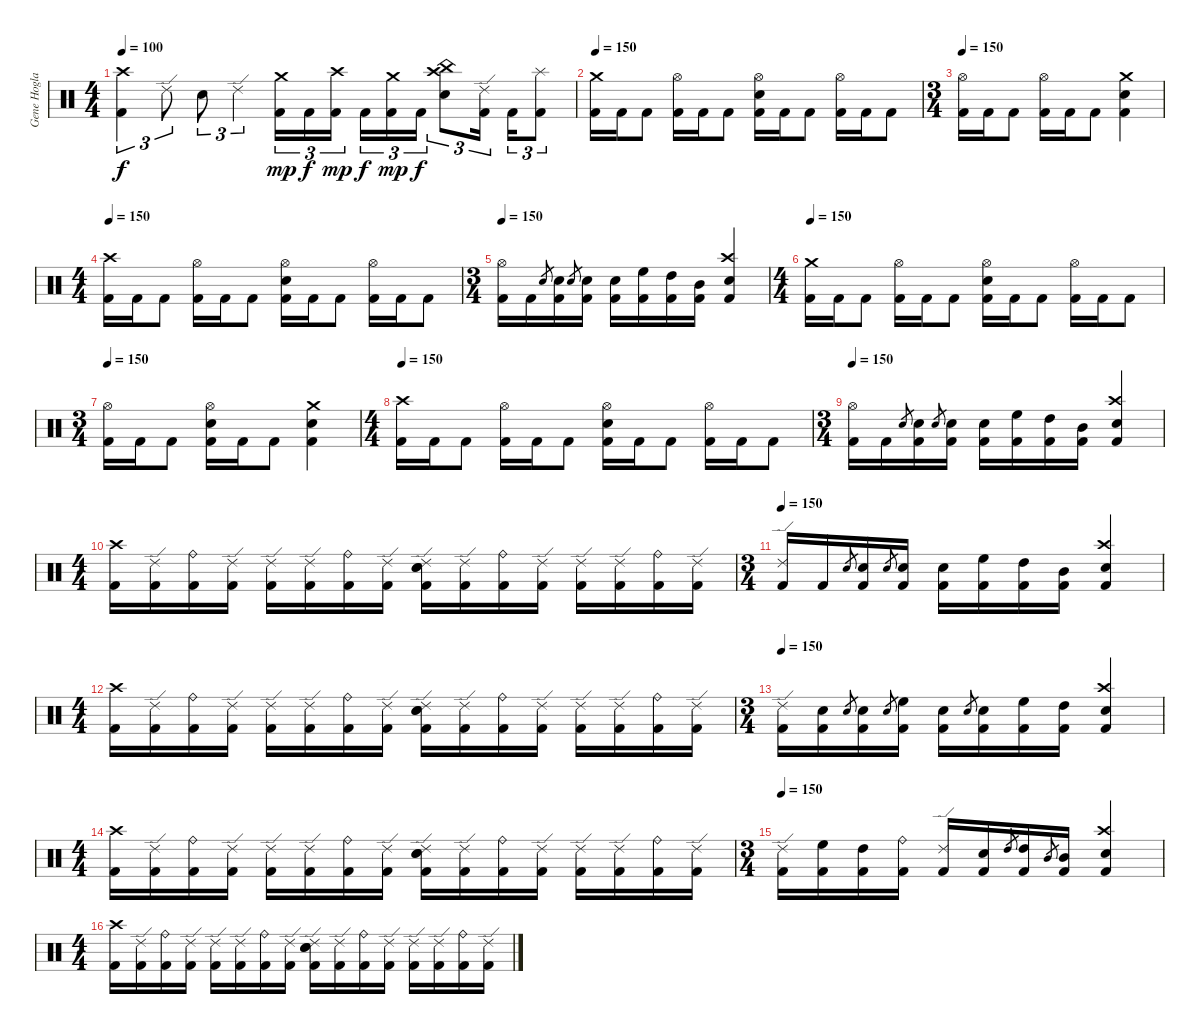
\track ("Gene Hoglan" "Gene Hogla") {instrument percussion}
\staff {score}
\articulation defaults
\ts (4 4)
\tempo 100
\clef neutral
\ks c
("Kick (hit) 2" "Crash high (hit)").4{tu (3 2) dy f} "Ride (edge) 2".8{tu (3 2)} "Electric Snare (hit)".8{tu (3 2)} "Ride (edge) 2".4{tu (3 2)} ("Kick (hit) 2" "Crash medium (hit)").16{tu (3 2) dy mp} "Kick (hit) 2".16{tu (3 2) dy f} ("Kick (hit) 2" "Crash high (hit)").16{tu (3 2) dy mp} "Kick (hit) 2".16{tu (3 2) dy f} ("Kick (hit) 2" "Crash medium (hit)").16{tu (3 2) dy mp} "Kick (hit) 2".16{tu (3 2) dy f} ("Electric Snare (hit)" "Crash high (hit)" "China (hit)").8{tu (3 2)} ("Kick (hit) 2" "Ride (edge) 2").16{tu (3 2)} "Kick (hit) 2".16{tu (3 2)} ("Kick (hit) 2" "Splash (hit)").8{tu (3 2)} |
\tempo 150
("Kick (hit) 2" "Crash medium (hit)").16 "Kick (hit) 2".16 "Kick (hit) 2".8 ("Kick (hit) 2" "Hi-Hat (open)").16 "Kick (hit) 2".16 "Kick (hit) 2".8 ("Kick (hit) 2" "Electric Snare (hit)" "Hi-Hat (open)").16 "Kick (hit) 2".16 "Kick (hit) 2".8 ("Kick (hit) 2" "Hi-Hat (open)").16 "Kick (hit) 2".16 "Kick (hit) 2".8 |
\ts (3 4)
\tempo 150
("Kick (hit) 2" "Hi-Hat (open)").16 "Kick (hit) 2".16 "Kick (hit) 2".8 ("Kick (hit) 2" "Hi-Hat (open)").16 "Kick (hit) 2".16 "Kick (hit) 2".8 ("Kick (hit) 2" "Electric Snare (hit)" "Crash medium (hit)").4 |
\ts (4 4)
\tempo 150
("Kick (hit) 2" "Crash high (hit)").16 "Kick (hit) 2".16 "Kick (hit) 2".8 ("Kick (hit) 2" "Hi-Hat (open)").16 "Kick (hit) 2".16 "Kick (hit) 2".8 ("Kick (hit) 2" "Electric Snare (hit)" "Hi-Hat (open)").16 "Kick (hit) 2".16 "Kick (hit) 2".8 ("Kick (hit) 2" "Hi-Hat (open)").16 "Kick (hit) 2".16 "Kick (hit) 2".8 |
\ts (3 4)
\tempo 150
("Kick (hit) 2" "Hi-Hat (open)").16 "Kick (hit) 2".16 "Electric Snare (hit)".8{gr} ("Kick (hit) 2" "Electric Snare (hit)").16 "Electric Snare (hit)".8{gr} ("Kick (hit) 2" "Electric Snare (hit)").16 ("Kick (hit) 2" "Electric Snare (hit)").16 ("Kick (hit) 2" "High Floor Tom (hit)").16 ("Kick (hit) 2" "High Tom (hit)").16 ("Kick (hit) 2" "Mid Tom (hit)").16 ("Kick (hit) 2" "Electric Snare (hit)" "Crash high (hit)").4 |
\ts (4 4)
\tempo 150
("Kick (hit) 2" "Crash medium (hit)").16 "Kick (hit) 2".16 "Kick (hit) 2".8 ("Kick (hit) 2" "Hi-Hat (open)").16 "Kick (hit) 2".16 "Kick (hit) 2".8 ("Kick (hit) 2" "Electric Snare (hit)" "Hi-Hat (open)").16 "Kick (hit) 2".16 "Kick (hit) 2".8 ("Kick (hit) 2" "Hi-Hat (open)").16 "Kick (hit) 2".16 "Kick (hit) 2".8 |
\ts (3 4)
\tempo 150
("Kick (hit) 2" "Hi-Hat (open)").16 "Kick (hit) 2".16 "Kick (hit) 2".8 ("Kick (hit) 2" "Electric Snare (hit)" "Hi-Hat (open)").16 "Kick (hit) 2".16 "Kick (hit) 2".8 ("Kick (hit) 2" "Electric Snare (hit)" "Crash medium (hit)").4 |
\ts (4 4)
\tempo 150
("Kick (hit) 2" "Crash high (hit)").16 "Kick (hit) 2".16 "Kick (hit) 2".8 ("Kick (hit) 2" "Hi-Hat (open)").16 "Kick (hit) 2".16 "Kick (hit) 2".8 ("Kick (hit) 2" "Electric Snare (hit)" "Hi-Hat (open)").16 "Kick (hit) 2".16 "Kick (hit) 2".8 ("Kick (hit) 2" "Hi-Hat (open)").16 "Kick (hit) 2".16 "Kick (hit) 2".8 |
\ts (3 4)
\tempo 150
("Kick (hit) 2" "Hi-Hat (open)").16 "Kick (hit) 2".16 "Electric Snare (hit)".8{gr} ("Kick (hit) 2" "Electric Snare (hit)").16 "Electric Snare (hit)".8{gr} ("Kick (hit) 2" "Electric Snare (hit)").16 ("Kick (hit) 2" "Electric Snare (hit)").16 ("Kick (hit) 2" "High Floor Tom (hit)").16 ("Kick (hit) 2" "High Tom (hit)").16 ("Kick (hit) 2" "Mid Tom (hit)").16 ("Kick (hit) 2" "Electric Snare (hit)" "Crash high (hit)").4 |
\ts (4 4)
("Kick (hit) 2" "Crash high (hit)").16 ("Kick (hit) 2" "Ride (edge) 2").16 ("Kick (hit) 2" "Ride (bell)").16 ("Kick (hit) 2" "Ride (edge) 2").16 ("Kick (hit) 2" "Ride (edge) 2").16 ("Kick (hit) 2" "Ride (edge) 2").16 ("Kick (hit) 2" "Ride (bell)").16 ("Kick (hit) 2" "Ride (edge) 2").16 ("Kick (hit) 2" "Electric Snare (hit)" "Electric Snare (hit)" "Ride (edge) 2").16 ("Kick (hit) 2" "Ride (edge) 2").16 ("Kick (hit) 2" "Ride (bell)").16 ("Kick (hit) 2" "Ride (edge) 2").16 ("Kick (hit) 2" "Ride (edge) 2").16 ("Kick (hit) 2" "Ride (edge) 2").16 ("Kick (hit) 2" "Ride (bell)").16 ("Kick (hit) 2" "Ride (edge) 2").16 |
\ts (3 4)
\tempo 150
("Kick (hit) 2" "Ride (edge) 2").16 "Kick (hit) 2".16 "Electric Snare (hit)".8{gr} ("Kick (hit) 2" "Electric Snare (hit)").16 "Electric Snare (hit)".8{gr} ("Kick (hit) 2" "Electric Snare (hit)").16 ("Kick (hit) 2" "Electric Snare (hit)").16 ("Kick (hit) 2" "High Floor Tom (hit)").16 ("Kick (hit) 2" "High Tom (hit)").16 ("Kick (hit) 2" "Mid Tom (hit)").16 ("Kick (hit) 2" "Electric Snare (hit)" "Crash high (hit)").4 |
\ts (4 4)
("Kick (hit) 2" "Crash high (hit)").16 ("Kick (hit) 2" "Ride (edge) 2").16 ("Kick (hit) 2" "Ride (bell)").16 ("Kick (hit) 2" "Ride (edge) 2").16 ("Kick (hit) 2" "Ride (edge) 2").16 ("Kick (hit) 2" "Ride (edge) 2").16 ("Kick (hit) 2" "Ride (bell)").16 ("Kick (hit) 2" "Ride (edge) 2").16 ("Kick (hit) 2" "Electric Snare (hit)" "Electric Snare (hit)" "Ride (edge) 2").16 ("Kick (hit) 2" "Ride (edge) 2").16 ("Kick (hit) 2" "Ride (bell)").16 ("Kick (hit) 2" "Ride (edge) 2").16 ("Kick (hit) 2" "Ride (edge) 2").16 ("Kick (hit) 2" "Ride (edge) 2").16 ("Kick (hit) 2" "Ride (bell)").16 ("Kick (hit) 2" "Ride (edge) 2").16 |
\ts (3 4)
\tempo 150
("Kick (hit) 2" "Ride (edge) 2").16 ("Kick (hit) 2" "Electric Snare (hit)").16 "Electric Snare (hit)".8{gr} ("Kick (hit) 2" "Electric Snare (hit)").16 "Electric Snare (hit)".8{gr} ("Kick (hit) 2" "High Floor Tom (hit)").16 ("Kick (hit) 2" "Electric Snare (hit)").16 "Electric Snare (hit)".8{gr} ("Kick (hit) 2" "Electric Snare (hit)").16 ("Kick (hit) 2" "High Floor Tom (hit)").16 ("Kick (hit) 2" "High Tom (hit)").16 ("Kick (hit) 2" "Electric Snare (hit)" "Crash high (hit)").4 |
\ts (4 4)
("Kick (hit) 2" "Crash high (hit)").16 ("Kick (hit) 2" "Ride (edge) 2").16 ("Kick (hit) 2" "Ride (bell)").16 ("Kick (hit) 2" "Ride (edge) 2").16 ("Kick (hit) 2" "Ride (edge) 2").16 ("Kick (hit) 2" "Ride (edge) 2").16 ("Kick (hit) 2" "Ride (bell)").16 ("Kick (hit) 2" "Ride (edge) 2").16 ("Kick (hit) 2" "Electric Snare (hit)" "Electric Snare (hit)" "Ride (edge) 2").16 ("Kick (hit) 2" "Ride (edge) 2").16 ("Kick (hit) 2" "Ride (bell)").16 ("Kick (hit) 2" "Ride (edge) 2").16 ("Kick (hit) 2" "Ride (edge) 2").16 ("Kick (hit) 2" "Ride (edge) 2").16 ("Kick (hit) 2" "Ride (bell)").16 ("Kick (hit) 2" "Ride (edge) 2").16 |
\ts (3 4)
\tempo 150
("Kick (hit) 2" "Ride (edge) 2").16 ("Kick (hit) 2" "High Floor Tom (hit)").16 ("Kick (hit) 2" "High Tom (hit)").16 ("Kick (hit) 2" "Ride (bell)").16 ("Kick (hit) 2" "Ride (edge) 2").16 ("Kick (hit) 2" "Electric Snare (hit)").16 "High Tom (hit)".8{gr} ("Kick (hit) 2" "High Tom (hit)").16 "Mid Tom (hit)".8{gr} ("Kick (hit) 2" "Mid Tom (hit)").16 ("Kick (hit) 2" "Electric Snare (hit)" "Crash high (hit)").4 |
\ts (4 4)
("Kick (hit) 2" "Crash high (hit)").16 ("Kick (hit) 2" "Ride (edge) 2").16 ("Kick (hit) 2" "Ride (bell)").16 ("Kick (hit) 2" "Ride (edge) 2").16 ("Kick (hit) 2" "Ride (edge) 2").16 ("Kick (hit) 2" "Ride (edge) 2").16 ("Kick (hit) 2" "Ride (bell)").16 ("Kick (hit) 2" "Ride (edge) 2").16 ("Kick (hit) 2" "Electric Snare (hit)" "Electric Snare (hit)" "Ride (edge) 2").16 ("Kick (hit) 2" "Ride (edge) 2").16 ("Kick (hit) 2" "Ride (bell)").16 ("Kick (hit) 2" "Ride (edge) 2").16 ("Kick (hit) 2" "Ride (edge) 2").16 ("Kick (hit) 2" "Ride (edge) 2").16 ("Kick (hit) 2" "Ride (bell)").16 ("Kick (hit) 2" "Ride (edge) 2").16
